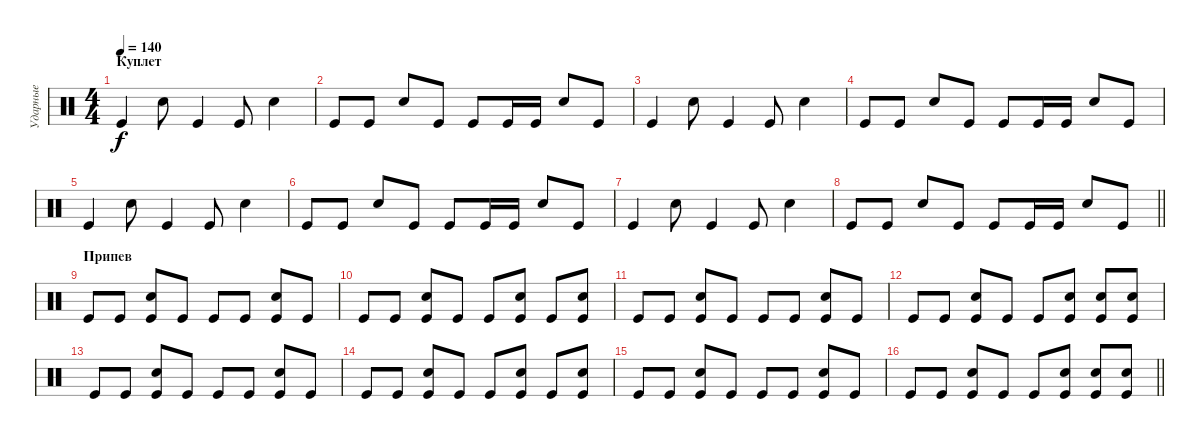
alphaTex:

\track ("Ударные" "Ударные") {instrument percussion}
\staff {score}
\articulation defaults
\ts (4 4)
\section ("" "Куплет")
\tempo 140
\clef neutral
\ks c "Kick (hit)".4{dy f} "Snare (hit) 2".8 "Kick (hit)".4 "Kick (hit)".8 "Snare (hit) 2".4
|
"Kick (hit)".8 "Kick (hit)".8 "Snare (hit) 2".8 "Kick (hit)".8 "Kick (hit)".8 "Kick (hit)".16 "Kick (hit)".16 "Snare (hit) 2".8 "Kick (hit)".8 |
"Kick (hit)".4 "Snare (hit) 2".8 "Kick (hit)".4 "Kick (hit)".8 "Snare (hit) 2".4 |
"Kick (hit)".8 "Kick (hit)".8 "Snare (hit) 2".8 "Kick (hit)".8 "Kick (hit)".8 "Kick (hit)".16 "Kick (hit)".16 "Snare (hit) 2".8 "Kick (hit)".8 |
"Kick (hit)".4 "Snare (hit) 2".8 "Kick (hit)".4 "Kick (hit)".8 "Snare (hit) 2".4 |
"Kick (hit)".8 "Kick (hit)".8 "Snare (hit) 2".8 "Kick (hit)".8 "Kick (hit)".8 "Kick (hit)".16 "Kick (hit)".16 "Snare (hit) 2".8 "Kick (hit)".8 |
"Kick (hit)".4 "Snare (hit) 2".8 "Kick (hit)".4 "Kick (hit)".8 "Snare (hit) 2".4 |
\barLineRight lightlight "Kick (hit)".8 "Kick (hit)".8 "Snare (hit) 2".8 "Kick (hit)".8 "Kick (hit)".8 "Kick (hit)".16 "Kick (hit)".16 "Snare (hit) 2".8 "Kick (hit)".8
|
\section ("" "Припев")
"Kick (hit)".8 "Kick (hit)".8 ("Kick (hit)" "Snare (hit) 2").8 "Kick (hit)".8 "Kick (hit)".8 "Kick (hit)".8 ("Kick (hit)" "Snare (hit) 2").8 "Kick (hit)".8 |
"Kick (hit)".8 "Kick (hit)".8 ("Kick (hit)" "Snare (hit) 2").8 "Kick (hit)".8 "Kick (hit)".8 ("Kick (hit)" "Snare (hit) 2").8 "Kick (hit)".8 ("Kick (hit)" "Snare (hit) 2").8 |
"Kick (hit)".8 "Kick (hit)".8 ("Kick (hit)" "Snare (hit) 2").8 "Kick (hit)".8 "Kick (hit)".8 "Kick (hit)".8 ("Kick (hit)" "Snare (hit) 2").8 "Kick (hit)".8 |
"Kick (hit)".8 "Kick (hit)".8 ("Kick (hit)" "Snare (hit) 2").8 "Kick (hit)".8 "Kick (hit)".8 ("Kick (hit)" "Snare (hit) 2").8 ("Kick (hit)" "Snare (hit) 2").8 ("Kick (hit)" "Snare (hit) 2").8 |
"Kick (hit)".8 "Kick (hit)".8 ("Kick (hit)" "Snare (hit) 2").8 "Kick (hit)".8 "Kick (hit)".8 "Kick (hit)".8 ("Kick (hit)" "Snare (hit) 2").8 "Kick (hit)".8 |
"Kick (hit)".8 "Kick (hit)".8 ("Kick (hit)" "Snare (hit) 2").8 "Kick (hit)".8 "Kick (hit)".8 ("Kick (hit)" "Snare (hit) 2").8 "Kick (hit)".8 ("Kick (hit)" "Snare (hit) 2").8 |
"Kick (hit)".8 "Kick (hit)".8 ("Kick (hit)" "Snare (hit) 2").8 "Kick (hit)".8 "Kick (hit)".8 "Kick (hit)".8 ("Kick (hit)" "Snare (hit) 2").8 "Kick (hit)".8 |
\barLineRight lightlight "Kick (hit)".8 "Kick (hit)".8
("Kick (hit)" "Snare (hit) 2").8 "Kick (hit)".8 "Kick (hit)".8 ("Kick (hit)" "Snare (hit) 2").8 ("Kick (hit)" "Snare (hit) 2").8 ("Kick (hit)" "Snare (hit) 2").8
